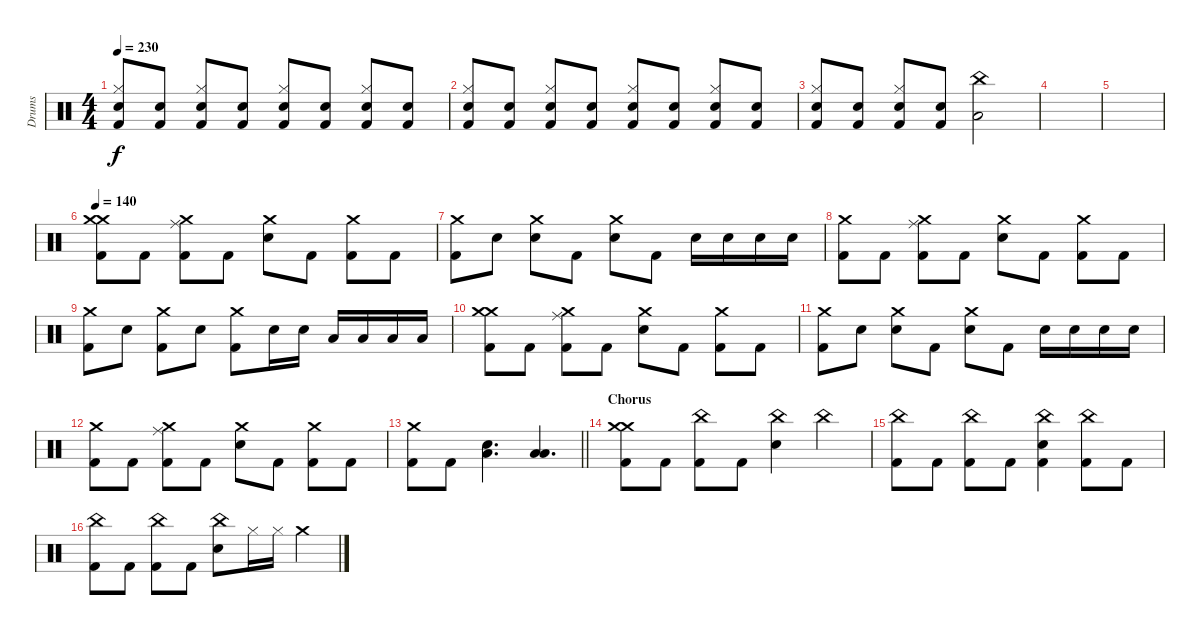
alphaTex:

\track ("Drums" "Drums") {instrument percussion}
\staff {score}
\articulation defaults
\ts (4 4)
\tempo 230
\clef neutral
\ks c
("Kick (hit) 2" "Hi-Hat (closed)" "Snare (hit) 2").8{dy f} ("Kick (hit) 2" "Snare (hit) 2").8 ("Kick (hit) 2" "Hi-Hat (closed)" "Snare (hit) 2").8 ("Kick (hit) 2" "Snare (hit) 2").8 ("Kick (hit) 2" "Hi-Hat (closed)" "Snare (hit) 2").8 ("Kick (hit) 2" "Snare (hit) 2").8 ("Kick (hit) 2" "Hi-Hat (closed)" "Snare (hit) 2").8 ("Kick (hit) 2" "Snare (hit) 2").8 |
("Kick (hit) 2" "Hi-Hat (closed)" "Snare (hit) 2").8 ("Kick (hit) 2" "Snare (hit) 2").8 ("Kick (hit) 2" "Hi-Hat (closed)" "Snare (hit) 2").8 ("Kick (hit) 2" "Snare (hit) 2").8 ("Kick (hit) 2" "Hi-Hat (closed)" "Snare (hit) 2").8 ("Kick (hit) 2" "Snare (hit) 2").8 ("Kick (hit) 2" "Hi-Hat (closed)" "Snare (hit) 2").8 ("Kick (hit) 2" "Snare (hit) 2").8 |
("Kick (hit) 2" "Hi-Hat (closed)" "Snare (hit) 2").8 ("Kick (hit) 2" "Snare (hit) 2").8 ("Kick (hit) 2" "Hi-Hat (closed)" "Snare (hit) 2").8 ("Kick (hit) 2" "Snare (hit) 2").8 ("Low Floor Tom (hit)" "China (hit)").2 |
|
|
\tempo 140
("Kick (hit) 2" "Crash medium (hit)" "Crash medium (hit)").8 "Kick (hit) 2".8 ("Kick (hit) 2" "Crash medium (hit)" "Ride (middle)").8 "Kick (hit) 2".8 ("Crash medium (hit)" "Snare (hit) 2").8 "Kick (hit) 2".8 ("Kick (hit) 2" "Crash medium (hit)").8 "Kick (hit) 2".8 |
("Kick (hit) 2" "Crash medium (hit)").8 "Snare (hit) 2".8 ("Snare (hit) 2" "Crash medium (hit)").8 "Kick (hit) 2".8 ("Snare (hit) 2" "Crash medium (hit)").8 "Kick (hit) 2".8 "Snare (hit) 2".16 "Snare (hit) 2".16 "Snare (hit) 2".16 "Snare (hit) 2".16 |
("Kick (hit) 2" "Crash medium (hit)").8 "Kick (hit) 2".8 ("Kick (hit) 2" "Crash medium (hit)" "Ride (middle)").8 "Kick (hit) 2".8 ("Crash medium (hit)" "Snare (hit) 2").8 "Kick (hit) 2".8 ("Kick (hit) 2" "Crash medium (hit)").8 "Kick (hit) 2".8 |
("Kick (hit) 2" "Crash medium (hit)").8 "Snare (hit) 2".8 ("Kick (hit) 2" "Crash medium (hit)").8 "Snare (hit) 2".8 ("Kick (hit) 2" "Crash medium (hit)").8 "Snare (hit) 2".16 "Snare (hit) 2".16 "Low Tom (hit)".16 "Low Tom (hit)".16 "Low Floor Tom (hit)".16 "Low Floor Tom (hit)".16 |
("Kick (hit) 2" "Crash medium (hit)" "Crash medium (hit)").8 "Kick (hit) 2".8 ("Kick (hit) 2" "Crash medium (hit)" "Ride (middle)").8 "Kick (hit) 2".8 ("Crash medium (hit)" "Snare (hit) 2").8 "Kick (hit) 2".8 ("Kick (hit) 2" "Crash medium (hit)").8 "Kick (hit) 2".8 |
("Kick (hit) 2" "Crash medium (hit)").8 "Snare (hit) 2".8 ("Snare (hit) 2" "Crash medium (hit)").8 "Kick (hit) 2".8 ("Snare (hit) 2" "Crash medium (hit)").8 "Kick (hit) 2".8 "Snare (hit) 2".16 "Snare (hit) 2".16 "Snare (hit) 2".16 "Snare (hit) 2".16 |
("Kick (hit) 2" "Crash medium (hit)").8 "Kick (hit) 2".8 ("Kick (hit) 2" "Crash medium (hit)" "Ride (middle)").8 "Kick (hit) 2".8 ("Crash medium (hit)" "Snare (hit) 2").8 "Kick (hit) 2".8 ("Kick (hit) 2" "Crash medium (hit)").8 "Kick (hit) 2".8 |
\barLineRight lightlight
("Kick (hit) 2" "Crash medium (hit)").8 "Kick (hit) 2".8 ("Low Tom (hit)" "Snare (hit) 2").4{d} ("Low Floor Tom (hit)" "Low Tom (hit)").4{d} |
\section ("" "Chorus")
("Crash medium (hit)" "Crash medium (hit)" "Kick (hit) 2").8 "Kick (hit) 2".8 ("China (hit)" "Kick (hit) 2").8 "Kick (hit) 2".8 ("China (hit)" "Snare (hit) 2").4 "China (hit)".4 |
("China (hit)" "Kick (hit) 2").8 "Kick (hit) 2".8 ("China (hit)" "Kick (hit) 2").8 "Kick (hit) 2".8 ("China (hit)" "Kick (hit) 2" "Snare (hit) 2").4 ("China (hit)" "Kick (hit) 2").8 "Kick (hit) 2".8 |
("China (hit)" "Kick (hit) 2").8 "Kick (hit) 2".8 ("China (hit)" "Kick (hit) 2").8 "Kick (hit) 2".8 ("China (hit)" "Snare (hit) 2").8 "Hi-Hat (closed)".16 "Hi-Hat (closed)".16 "Crash medium (hit)".4
